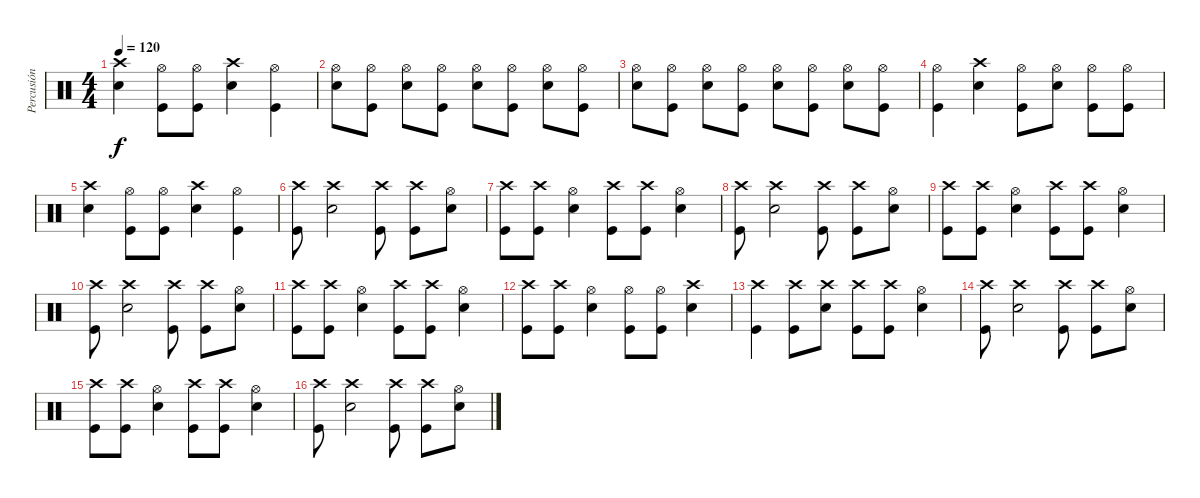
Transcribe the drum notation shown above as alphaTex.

\track ("Percusión" "Percusión") {instrument percussion}
\staff {score}
\articulation defaults
\ts (4 4)
\tempo 120
\clef neutral
\ks c
("Crash high (hit)" "Snare (hit) 2").4{dy f} ("Hi-Hat (open)" "Kick (hit)").8 ("Hi-Hat (open)" "Kick (hit)").8 ("Crash high (hit)" "Snare (hit) 2").4 ("Hi-Hat (open)" "Kick (hit)").4 |
("Hi-Hat (open)" "Snare (hit) 2").8 ("Hi-Hat (open)" "Kick (hit)").8 ("Hi-Hat (open)" "Snare (hit) 2").8 ("Hi-Hat (open)" "Kick (hit)").8 ("Hi-Hat (open)" "Snare (hit) 2").8 ("Hi-Hat (open)" "Kick (hit)").8 ("Hi-Hat (open)" "Snare (hit) 2").8 ("Hi-Hat (open)" "Kick (hit)").8 |
("Hi-Hat (open)" "Snare (hit) 2").8 ("Hi-Hat (open)" "Kick (hit)").8 ("Hi-Hat (open)" "Snare (hit) 2").8 ("Hi-Hat (open)" "Kick (hit)").8 ("Hi-Hat (open)" "Snare (hit) 2").8 ("Hi-Hat (open)" "Kick (hit)").8 ("Hi-Hat (open)" "Snare (hit) 2").8 ("Hi-Hat (open)" "Kick (hit)").8 |
("Hi-Hat (open)" "Kick (hit)").4 ("Crash high (hit)" "Snare (hit) 2").4 ("Hi-Hat (open)" "Kick (hit)").8 ("Hi-Hat (open)" "Snare (hit) 2").8 ("Hi-Hat (open)" "Kick (hit)").8 ("Hi-Hat (open)" "Kick (hit)").8 |
("Crash high (hit)" "Snare (hit) 2").4 ("Hi-Hat (open)" "Kick (hit)").8 ("Hi-Hat (open)" "Kick (hit)").8 ("Crash high (hit)" "Snare (hit) 2").4 ("Hi-Hat (open)" "Kick (hit)").4 |
("Crash high (hit)" "Kick (hit)").8 ("Crash high (hit)" "Snare (hit) 2").2 ("Crash high (hit)" "Kick (hit)").8 ("Crash high (hit)" "Kick (hit)").8 ("Hi-Hat (open)" "Snare (hit) 2").8 |
("Crash high (hit)" "Kick (hit)").8 ("Crash high (hit)" "Kick (hit)").8 ("Hi-Hat (open)" "Snare (hit) 2").4 ("Crash high (hit)" "Kick (hit)").8 ("Crash high (hit)" "Kick (hit)").8 ("Hi-Hat (open)" "Snare (hit) 2").4 |
("Crash high (hit)" "Kick (hit)").8 ("Crash high (hit)" "Snare (hit) 2").2 ("Crash high (hit)" "Kick (hit)").8 ("Crash high (hit)" "Kick (hit)").8 ("Hi-Hat (open)" "Snare (hit) 2").8 |
("Crash high (hit)" "Kick (hit)").8 ("Crash high (hit)" "Kick (hit)").8 ("Hi-Hat (open)" "Snare (hit) 2").4 ("Crash high (hit)" "Kick (hit)").8 ("Crash high (hit)" "Kick (hit)").8 ("Hi-Hat (open)" "Snare (hit) 2").4 |
("Crash high (hit)" "Kick (hit)").8 ("Crash high (hit)" "Snare (hit) 2").2 ("Crash high (hit)" "Kick (hit)").8 ("Crash high (hit)" "Kick (hit)").8 ("Hi-Hat (open)" "Snare (hit) 2").8 |
("Crash high (hit)" "Kick (hit)").8 ("Crash high (hit)" "Kick (hit)").8 ("Hi-Hat (open)" "Snare (hit) 2").4 ("Crash high (hit)" "Kick (hit)").8 ("Crash high (hit)" "Kick (hit)").8 ("Hi-Hat (open)" "Snare (hit) 2").4 |
("Crash high (hit)" "Kick (hit)").8 ("Crash high (hit)" "Kick (hit)").8 ("Hi-Hat (open)" "Snare (hit) 2").4 ("Hi-Hat (open)" "Kick (hit)").8 ("Hi-Hat (open)" "Kick (hit)").8 ("Crash high (hit)" "Snare (hit) 2").4 |
("Crash high (hit)" "Kick (hit)").4 ("Crash high (hit)" "Kick (hit)").8 ("Crash high (hit)" "Snare (hit) 2").8 ("Crash high (hit)" "Kick (hit)").8 ("Crash high (hit)" "Kick (hit)").8 ("Hi-Hat (open)" "Snare (hit) 2").4 |
("Crash high (hit)" "Kick (hit)").8 ("Crash high (hit)" "Snare (hit) 2").2 ("Crash high (hit)" "Kick (hit)").8 ("Crash high (hit)" "Kick (hit)").8 ("Hi-Hat (open)" "Snare (hit) 2").8 |
("Crash high (hit)" "Kick (hit)").8 ("Crash high (hit)" "Kick (hit)").8 ("Hi-Hat (open)" "Snare (hit) 2").4 ("Crash high (hit)" "Kick (hit)").8 ("Crash high (hit)" "Kick (hit)").8 ("Hi-Hat (open)" "Snare (hit) 2").4 |
("Crash high (hit)" "Kick (hit)").8 ("Crash high (hit)" "Snare (hit) 2").2 ("Crash high (hit)" "Kick (hit)").8 ("Crash high (hit)" "Kick (hit)").8 ("Hi-Hat (open)" "Snare (hit) 2").8
